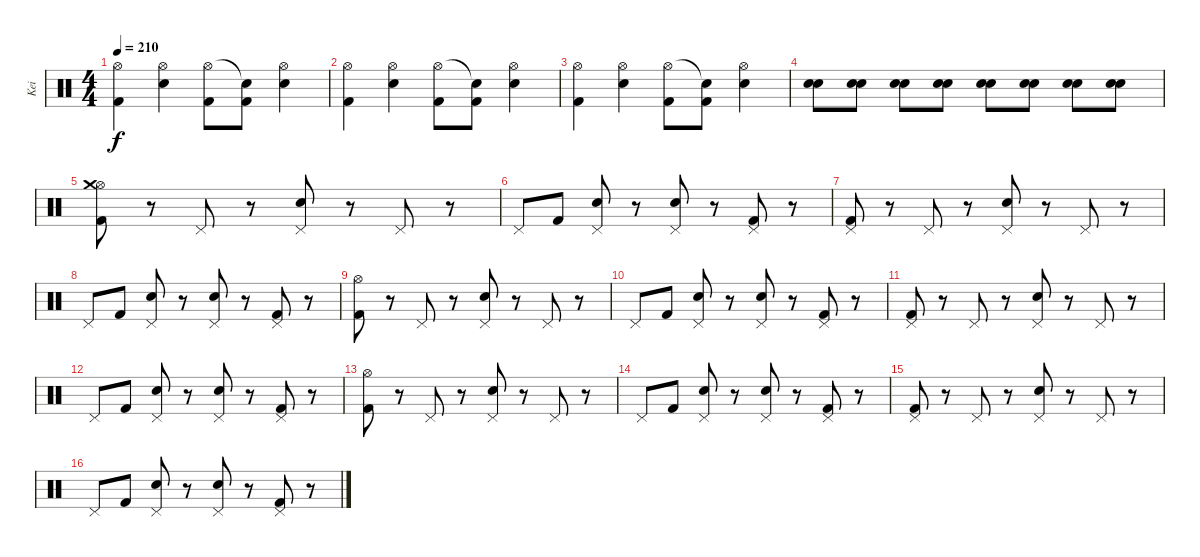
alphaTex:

\track ("Kei" "Kei") {instrument percussion}
\staff {score}
\articulation defaults
\ts (4 4)
\tempo 210
\clef neutral
\ks c
("Hi-Hat (open)" "Kick (hit) 2").4{dy f} ("Hi-Hat (open)" "Electric Snare (hit)").4 ("Hi-Hat (open)" "Kick (hit) 2").8 ("Snare (hit)"{t} "Kick (hit) 2").8 ("Hi-Hat (open)" "Electric Snare (hit)").4 |
("Hi-Hat (open)" "Kick (hit) 2").4 ("Hi-Hat (open)" "Electric Snare (hit)").4 ("Hi-Hat (open)" "Kick (hit) 2").8 ("Snare (hit)"{t} "Kick (hit) 2").8 ("Hi-Hat (open)" "Electric Snare (hit)").4 |
("Hi-Hat (open)" "Kick (hit) 2").4 ("Hi-Hat (open)" "Electric Snare (hit)").4 ("Hi-Hat (open)" "Kick (hit) 2").8 ("Snare (hit)"{t} "Kick (hit) 2").8 ("Hi-Hat (open)" "Electric Snare (hit)").4 |
("Electric Snare (hit)" "Electric Snare (hit)").8 ("Electric Snare (hit)" "Electric Snare (hit)").8 ("Electric Snare (hit)" "Electric Snare (hit)").8 ("Electric Snare (hit)" "Electric Snare (hit)").8 ("Electric Snare (hit)" "Electric Snare (hit)").8 ("Electric Snare (hit)" "Electric Snare (hit)").8 ("Electric Snare (hit)" "Electric Snare (hit)").8 ("Electric Snare (hit)" "Electric Snare (hit)").8 |
("Hi-Hat (open)" "Crash medium (hit)" "Kick (hit) 2").8 r.8 "Pedal Hi-Hat (hit)".8 r.8 ("Pedal Hi-Hat (hit)" "Electric Snare (hit)").8 r.8 "Pedal Hi-Hat (hit)".8 r.8 |
"Pedal Hi-Hat (hit)".8 "Kick (hit) 2".8 ("Pedal Hi-Hat (hit)" "Electric Snare (hit)").8 r.8 ("Pedal Hi-Hat (hit)" "Electric Snare (hit)").8 r.8 ("Pedal Hi-Hat (hit)" "Kick (hit) 2").8 r.8 |
("Pedal Hi-Hat (hit)" "Kick (hit) 2").8 r.8 "Pedal Hi-Hat (hit)".8 r.8 ("Pedal Hi-Hat (hit)" "Electric Snare (hit)").8 r.8 "Pedal Hi-Hat (hit)".8 r.8 |
"Pedal Hi-Hat (hit)".8 "Kick (hit) 2".8 ("Pedal Hi-Hat (hit)" "Electric Snare (hit)").8 r.8 ("Pedal Hi-Hat (hit)" "Electric Snare (hit)").8 r.8 ("Pedal Hi-Hat (hit)" "Kick (hit) 2").8 r.8 |
("Hi-Hat (open)" "Kick (hit) 2").8 r.8 "Pedal Hi-Hat (hit)".8 r.8 ("Pedal Hi-Hat (hit)" "Electric Snare (hit)").8 r.8 "Pedal Hi-Hat (hit)".8 r.8 |
"Pedal Hi-Hat (hit)".8 "Kick (hit) 2".8 ("Pedal Hi-Hat (hit)" "Electric Snare (hit)").8 r.8 ("Pedal Hi-Hat (hit)" "Electric Snare (hit)").8 r.8 ("Pedal Hi-Hat (hit)" "Kick (hit) 2").8 r.8 |
("Pedal Hi-Hat (hit)" "Kick (hit) 2").8 r.8 "Pedal Hi-Hat (hit)".8 r.8 ("Pedal Hi-Hat (hit)" "Electric Snare (hit)").8 r.8 "Pedal Hi-Hat (hit)".8 r.8 |
"Pedal Hi-Hat (hit)".8 "Kick (hit) 2".8 ("Pedal Hi-Hat (hit)" "Electric Snare (hit)").8 r.8 ("Pedal Hi-Hat (hit)" "Electric Snare (hit)").8 r.8 ("Pedal Hi-Hat (hit)" "Kick (hit) 2").8 r.8 |
("Hi-Hat (open)" "Kick (hit) 2").8 r.8 "Pedal Hi-Hat (hit)".8 r.8 ("Pedal Hi-Hat (hit)" "Electric Snare (hit)").8 r.8 "Pedal Hi-Hat (hit)".8 r.8 |
"Pedal Hi-Hat (hit)".8 "Kick (hit) 2".8 ("Pedal Hi-Hat (hit)" "Electric Snare (hit)").8 r.8 ("Pedal Hi-Hat (hit)" "Electric Snare (hit)").8 r.8 ("Pedal Hi-Hat (hit)" "Kick (hit) 2").8 r.8 |
("Pedal Hi-Hat (hit)" "Kick (hit) 2").8 r.8 "Pedal Hi-Hat (hit)".8 r.8 ("Pedal Hi-Hat (hit)" "Electric Snare (hit)").8 r.8 "Pedal Hi-Hat (hit)".8 r.8 |
"Pedal Hi-Hat (hit)".8 "Kick (hit) 2".8 ("Pedal Hi-Hat (hit)" "Electric Snare (hit)").8 r.8 ("Pedal Hi-Hat (hit)" "Electric Snare (hit)").8 r.8 ("Pedal Hi-Hat (hit)" "Kick (hit) 2").8 r.8
